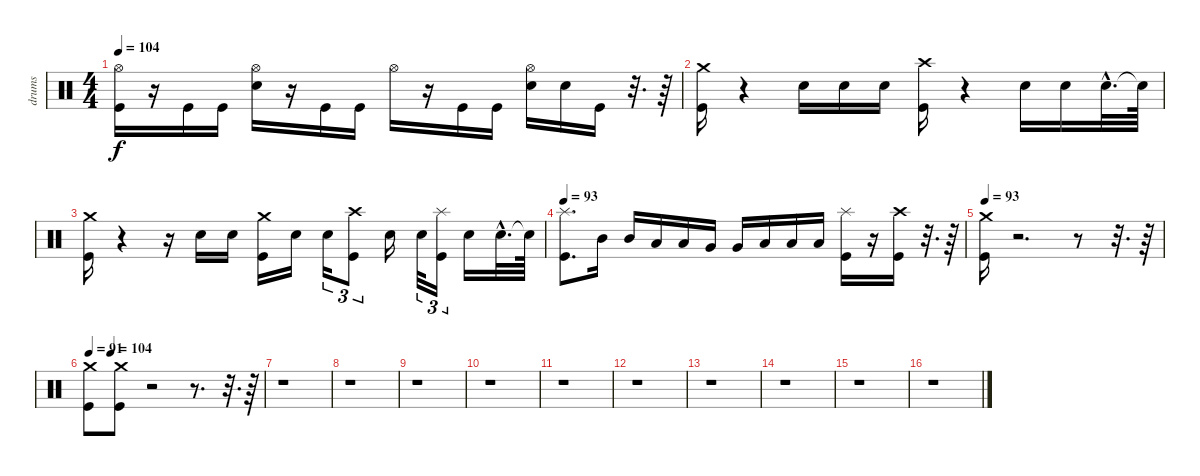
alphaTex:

\track ("drums" "drums") {instrument percussion}
\staff {score}
\articulation defaults
\ts (4 4)
\tempo 104
\clef neutral
\ks c
("Hi-Hat (open)" "Kick (hit)").16{dy f} r.16 "Kick (hit)".16 "Kick (hit)".16 ("Hi-Hat (open)" "Electric Snare (hit)").16 r.16 "Kick (hit)".16 "Kick (hit)".16 "Hi-Hat (open)".16 r.16 "Kick (hit)".16 "Kick (hit)".16 ("Hi-Hat (open)" "Electric Snare (hit)").16 "Electric Snare (hit)".16 "Kick (hit)".16 r.32{d} r.64 |
("Crash medium (hit)" "Kick (hit)").16 r.4 "Electric Snare (hit)".16 "Electric Snare (hit)".16 "Electric Snare (hit)".16 ("Crash high (hit)" "Kick (hit)").16 r.4 "Electric Snare (hit)".16 "Electric Snare (hit)".16 "Electric Snare (hit)"{hac}.32{d} "Snare (hit)"{t}.64 |
("Crash medium (hit)" "Kick (hit)").16 r.4 r.16 "Electric Snare (hit)".16 "Electric Snare (hit)".16 ("Crash medium (hit)" "Kick (hit)").16 "Electric Snare (hit)".16 "Electric Snare (hit)".16{tu (3 2)} ("Crash high (hit)" "Kick (hit)").8{tu (3 2)} "Electric Snare (hit)".16 "Electric Snare (hit)".32{tu (3 2)} ("Splash (hit)" "Kick (hit)").16{tu (3 2)} "Electric Snare (hit)".16 "Electric Snare (hit)"{hac}.32{d} "Snare (hit)"{t}.64 |
\tempo 93
("Splash (hit)" "Kick (hit)").8{d} "Mid Tom (hit)".16 "Mid Tom (hit)".16 "Low Tom (hit)".16 "Low Tom (hit)".16 "Very Low Tom (hit)".16 "Very Low Tom (hit)".16 "Low Floor Tom (hit)".16 "Low Floor Tom (hit)".16 "Low Floor Tom (hit)".16 ("Splash (hit)" "Kick (hit)").16 r.16 ("Crash high (hit)" "Kick (hit)").16 r.32{d} r.64 |
\tempo 93
("Crash medium (hit)" "Kick (hit)").16 r.2{d} r.8 r.32{d} r.64 |
\tempo 91
\tempo (104 0.125)
("Crash medium (hit)" "Kick (hit)").8 ("Crash medium (hit)" "Kick (hit)").8 r.2 r.8{d} r.32{d} r.64 |
r.1 |
r.1 |
r.1 |
r.1 |
r.1 |
r.1 |
r.1 |
r.1 |
r.1 |
r.1
